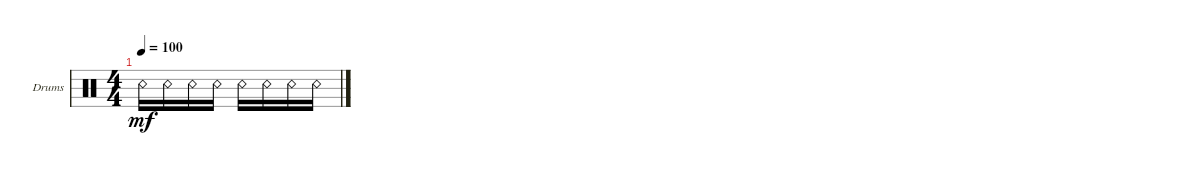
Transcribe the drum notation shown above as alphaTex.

\defaultSystemsLayout 4
\bracketExtendMode groupsimilarinstruments
\firstSystemTrackNameOrientation horizontal
\otherSystemsTrackNameOrientation horizontal
\track ("Drumkit" "Drums") {instrument percussion}
\staff {score}
\articulation defaults
\ts (4 4)
\tempo 100
\clef neutral
\ks c "Snare (rim shot)".16{dy mf} "Snare (rim shot)".16 "Snare (rim shot)".16 "Snare (rim shot)".16 "Snare (rim shot)".16 "Snare (rim shot)".16 "Snare (rim shot)".16 "Snare (rim shot)".16
